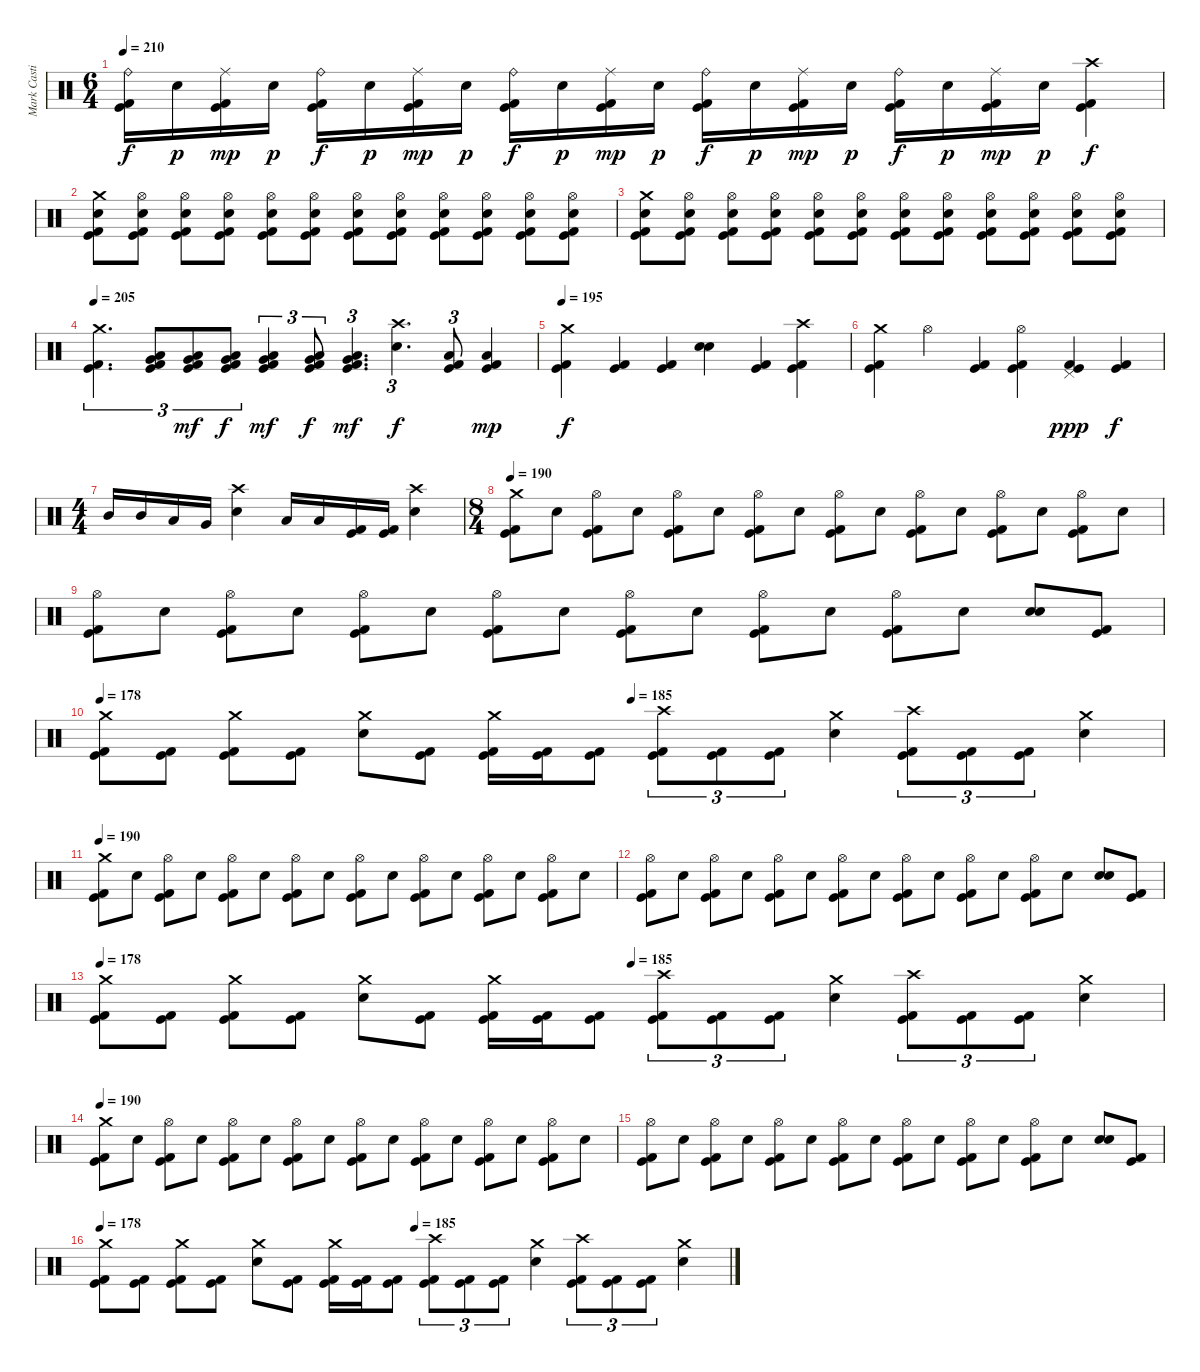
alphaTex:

\track ("Mark Castillo" "Mark Casti") {instrument percussion}
\staff {score}
\articulation defaults
\ts (6 4)
\tempo 210
\clef neutral
\ks c
("Ride (bell)" "Kick (hit)" "Kick (hit) 2").16{dy f} "Electric Snare (hit)".16{dy p} ("Ride (middle)" "Kick (hit)" "Kick (hit) 2").16{dy mp} "Electric Snare (hit)".16{dy p} ("Ride (bell)" "Kick (hit)" "Kick (hit) 2").16{dy f} "Electric Snare (hit)".16{dy p} ("Ride (middle)" "Kick (hit)" "Kick (hit) 2").16{dy mp} "Electric Snare (hit)".16{dy p} ("Ride (bell)" "Kick (hit)" "Kick (hit) 2").16{dy f} "Electric Snare (hit)".16{dy p} ("Ride (middle)" "Kick (hit)" "Kick (hit) 2").16{dy mp} "Electric Snare (hit)".16{dy p} ("Ride (bell)" "Kick (hit)" "Kick (hit) 2").16{dy f} "Electric Snare (hit)".16{dy p} ("Ride (middle)" "Kick (hit)" "Kick (hit) 2").16{dy mp} "Electric Snare (hit)".16{dy p} ("Ride (bell)" "Kick (hit)" "Kick (hit) 2").16{dy f} "Electric Snare (hit)".16{dy p} ("Ride (middle)" "Kick (hit)" "Kick (hit) 2").16{dy mp} "Electric Snare (hit)".16{dy p} ("Crash high (hit)" "Kick (hit)" "Kick (hit) 2").4{dy f} |
("Crash medium (hit)" "Electric Snare (hit)" "Kick (hit)" "Kick (hit) 2").8 ("Hi-Hat (open)" "Electric Snare (hit)" "Kick (hit)" "Kick (hit) 2").8 ("Hi-Hat (open)" "Electric Snare (hit)" "Kick (hit)" "Kick (hit) 2").8 ("Hi-Hat (open)" "Electric Snare (hit)" "Kick (hit)" "Kick (hit) 2").8 ("Hi-Hat (open)" "Electric Snare (hit)" "Kick (hit)" "Kick (hit) 2").8 ("Hi-Hat (open)" "Electric Snare (hit)" "Kick (hit)" "Kick (hit) 2").8 ("Hi-Hat (open)" "Electric Snare (hit)" "Kick (hit)" "Kick (hit) 2").8 ("Hi-Hat (open)" "Electric Snare (hit)" "Kick (hit)" "Kick (hit) 2").8 ("Hi-Hat (open)" "Electric Snare (hit)" "Kick (hit)" "Kick (hit) 2").8 ("Hi-Hat (open)" "Electric Snare (hit)" "Kick (hit)" "Kick (hit) 2").8 ("Hi-Hat (open)" "Electric Snare (hit)" "Kick (hit)" "Kick (hit) 2").8 ("Hi-Hat (open)" "Electric Snare (hit)" "Kick (hit)" "Kick (hit) 2").8 |
("Crash medium (hit)" "Electric Snare (hit)" "Kick (hit)" "Kick (hit) 2").8 ("Hi-Hat (open)" "Electric Snare (hit)" "Kick (hit)" "Kick (hit) 2").8 ("Hi-Hat (open)" "Electric Snare (hit)" "Kick (hit)" "Kick (hit) 2").8 ("Hi-Hat (open)" "Electric Snare (hit)" "Kick (hit)" "Kick (hit) 2").8 ("Hi-Hat (open)" "Electric Snare (hit)" "Kick (hit)" "Kick (hit) 2").8 ("Hi-Hat (open)" "Electric Snare (hit)" "Kick (hit)" "Kick (hit) 2").8 ("Hi-Hat (open)" "Electric Snare (hit)" "Kick (hit)" "Kick (hit) 2").8 ("Hi-Hat (open)" "Electric Snare (hit)" "Kick (hit)" "Kick (hit) 2").8 ("Hi-Hat (open)" "Electric Snare (hit)" "Kick (hit)" "Kick (hit) 2").8 ("Hi-Hat (open)" "Electric Snare (hit)" "Kick (hit)" "Kick (hit) 2").8 ("Hi-Hat (open)" "Electric Snare (hit)" "Kick (hit)" "Kick (hit) 2").8 ("Hi-Hat (open)" "Electric Snare (hit)" "Kick (hit)" "Kick (hit) 2").8 |
\tempo 205
("Crash medium (hit)" "Kick (hit)" "Kick (hit) 2").4{d tu (3 2)} ("Very Low Tom (hit)" "Low Floor Tom (hit)" "Kick (hit)" "Kick (hit) 2").8{tu (3 2)} ("Very Low Tom (hit)" "Low Floor Tom (hit)" "Kick (hit)" "Kick (hit) 2").8{tu (3 2) dy mf} ("Very Low Tom (hit)" "Low Floor Tom (hit)" "Kick (hit)" "Kick (hit) 2").8{tu (3 2) dy f} ("Very Low Tom (hit)" "Low Floor Tom (hit)" "Kick (hit)" "Kick (hit) 2").4{tu (3 2) dy mf} ("Very Low Tom (hit)" "Low Floor Tom (hit)" "Kick (hit)" "Kick (hit) 2").8{tu (3 2) dy f} ("Very Low Tom (hit)" "Low Floor Tom (hit)" "Kick (hit)" "Kick (hit) 2").4{d tu (3 2) dy mf} ("Crash high (hit)" "Electric Snare (hit)").4{d tu (3 2) dy f} ("Low Floor Tom (hit)" "Kick (hit)" "Kick (hit) 2").8{tu (3 2)} ("Low Floor Tom (hit)" "Kick (hit)" "Kick (hit) 2").4{dy mp} |
\tempo 195
("Crash medium (hit)" "Kick (hit)" "Kick (hit) 2").4{dy f} ("Kick (hit)" "Kick (hit) 2").4 ("Kick (hit)" "Kick (hit) 2").4 ("Electric Snare (hit)" "Electric Snare (hit)").4{bu 240} ("Kick (hit)" "Kick (hit) 2").4 ("Crash high (hit)" "Kick (hit)" "Kick (hit) 2").4 |
("Crash medium (hit)" "Kick (hit)" "Kick (hit) 2").4 "Hi-Hat (open)".4 ("Kick (hit)" "Kick (hit) 2").4 ("Hi-Hat (open)" "Kick (hit)" "Kick (hit) 2").4 ("Pedal Hi-Hat (hit)" "Kick (hit)" "Kick (hit) 2").4{dy ppp} ("Kick (hit)" "Kick (hit) 2").4{dy f} |
\ts (4 4)
"Mid Tom (hit)".16 "Mid Tom (hit)".16 "Low Tom (hit)".16 "Very Low Tom (hit)".16 ("Crash high (hit)" "Electric Snare (hit)").4 "Low Tom (hit)".16 "Low Tom (hit)".16 ("Kick (hit)" "Kick (hit) 2").16 ("Kick (hit)" "Kick (hit) 2").16 ("Crash high (hit)" "Electric Snare (hit)").4 |
\ts (8 4)
\tempo 190
("Crash medium (hit)" "Kick (hit)" "Kick (hit) 2").8 "Electric Snare (hit)".8 ("Hi-Hat (open)" "Kick (hit)" "Kick (hit) 2").8 "Electric Snare (hit)".8 ("Hi-Hat (open)" "Kick (hit)" "Kick (hit) 2").8 "Electric Snare (hit)".8 ("Hi-Hat (open)" "Kick (hit)" "Kick (hit) 2").8 "Electric Snare (hit)".8 ("Hi-Hat (open)" "Kick (hit)" "Kick (hit) 2").8 "Electric Snare (hit)".8 ("Hi-Hat (open)" "Kick (hit)" "Kick (hit) 2").8 "Electric Snare (hit)".8 ("Hi-Hat (open)" "Kick (hit)" "Kick (hit) 2").8 "Electric Snare (hit)".8 ("Hi-Hat (open)" "Kick (hit)" "Kick (hit) 2").8 "Electric Snare (hit)".8 |
("Hi-Hat (open)" "Kick (hit)" "Kick (hit) 2").8 "Electric Snare (hit)".8 ("Hi-Hat (open)" "Kick (hit)" "Kick (hit) 2").8 "Electric Snare (hit)".8 ("Hi-Hat (open)" "Kick (hit)" "Kick (hit) 2").8 "Electric Snare (hit)".8 ("Hi-Hat (open)" "Kick (hit)" "Kick (hit) 2").8 "Electric Snare (hit)".8 ("Hi-Hat (open)" "Kick (hit)" "Kick (hit) 2").8 "Electric Snare (hit)".8 ("Hi-Hat (open)" "Kick (hit)" "Kick (hit) 2").8 "Electric Snare (hit)".8 ("Hi-Hat (open)" "Kick (hit)" "Kick (hit) 2").8 "Electric Snare (hit)".8 ("Electric Snare (hit)" "Electric Snare (hit)").8{bu 240} ("Kick (hit)" "Kick (hit) 2").8 |
\tempo 178
\tempo (185 0.5)
("Crash medium (hit)" "Kick (hit)" "Kick (hit) 2").8 ("Kick (hit)" "Kick (hit) 2").8 ("Crash medium (hit)" "Kick (hit)" "Kick (hit) 2").8 ("Kick (hit)" "Kick (hit) 2").8 ("Crash medium (hit)" "Electric Snare (hit)").8 ("Kick (hit)" "Kick (hit) 2").8 ("Crash medium (hit)" "Kick (hit)" "Kick (hit) 2").16 ("Kick (hit)" "Kick (hit) 2").16 ("Kick (hit)" "Kick (hit) 2").8 ("Crash high (hit)" "Kick (hit)" "Kick (hit) 2").8{tu (3 2)} ("Kick (hit)" "Kick (hit) 2").8{tu (3 2)} ("Kick (hit)" "Kick (hit) 2").8{tu (3 2)} ("Crash medium (hit)" "Electric Snare (hit)").4 ("Crash high (hit)" "Kick (hit)" "Kick (hit) 2").8{tu (3 2)} ("Kick (hit)" "Kick (hit) 2").8{tu (3 2)} ("Kick (hit)" "Kick (hit) 2").8{tu (3 2)} ("Crash medium (hit)" "Electric Snare (hit)").4 |
\tempo 190
("Crash medium (hit)" "Kick (hit)" "Kick (hit) 2").8 "Electric Snare (hit)".8 ("Hi-Hat (open)" "Kick (hit)" "Kick (hit) 2").8 "Electric Snare (hit)".8 ("Hi-Hat (open)" "Kick (hit)" "Kick (hit) 2").8 "Electric Snare (hit)".8 ("Hi-Hat (open)" "Kick (hit)" "Kick (hit) 2").8 "Electric Snare (hit)".8 ("Hi-Hat (open)" "Kick (hit)" "Kick (hit) 2").8 "Electric Snare (hit)".8 ("Hi-Hat (open)" "Kick (hit)" "Kick (hit) 2").8 "Electric Snare (hit)".8 ("Hi-Hat (open)" "Kick (hit)" "Kick (hit) 2").8 "Electric Snare (hit)".8 ("Hi-Hat (open)" "Kick (hit)" "Kick (hit) 2").8 "Electric Snare (hit)".8 |
("Hi-Hat (open)" "Kick (hit)" "Kick (hit) 2").8 "Electric Snare (hit)".8 ("Hi-Hat (open)" "Kick (hit)" "Kick (hit) 2").8 "Electric Snare (hit)".8 ("Hi-Hat (open)" "Kick (hit)" "Kick (hit) 2").8 "Electric Snare (hit)".8 ("Hi-Hat (open)" "Kick (hit)" "Kick (hit) 2").8 "Electric Snare (hit)".8 ("Hi-Hat (open)" "Kick (hit)" "Kick (hit) 2").8 "Electric Snare (hit)".8 ("Hi-Hat (open)" "Kick (hit)" "Kick (hit) 2").8 "Electric Snare (hit)".8 ("Hi-Hat (open)" "Kick (hit)" "Kick (hit) 2").8 "Electric Snare (hit)".8 ("Electric Snare (hit)" "Electric Snare (hit)").8{bu 240} ("Kick (hit)" "Kick (hit) 2").8 |
\tempo 178
\tempo (185 0.5)
("Crash medium (hit)" "Kick (hit)" "Kick (hit) 2").8 ("Kick (hit)" "Kick (hit) 2").8 ("Crash medium (hit)" "Kick (hit)" "Kick (hit) 2").8 ("Kick (hit)" "Kick (hit) 2").8 ("Crash medium (hit)" "Electric Snare (hit)").8 ("Kick (hit)" "Kick (hit) 2").8 ("Crash medium (hit)" "Kick (hit)" "Kick (hit) 2").16 ("Kick (hit)" "Kick (hit) 2").16 ("Kick (hit)" "Kick (hit) 2").8 ("Crash high (hit)" "Kick (hit)" "Kick (hit) 2").8{tu (3 2)} ("Kick (hit)" "Kick (hit) 2").8{tu (3 2)} ("Kick (hit)" "Kick (hit) 2").8{tu (3 2)} ("Crash medium (hit)" "Electric Snare (hit)").4 ("Crash high (hit)" "Kick (hit)" "Kick (hit) 2").8{tu (3 2)} ("Kick (hit)" "Kick (hit) 2").8{tu (3 2)} ("Kick (hit)" "Kick (hit) 2").8{tu (3 2)} ("Crash medium (hit)" "Electric Snare (hit)").4 |
\tempo 190
("Crash medium (hit)" "Kick (hit)" "Kick (hit) 2").8 "Electric Snare (hit)".8 ("Hi-Hat (open)" "Kick (hit)" "Kick (hit) 2").8 "Electric Snare (hit)".8 ("Hi-Hat (open)" "Kick (hit)" "Kick (hit) 2").8 "Electric Snare (hit)".8 ("Hi-Hat (open)" "Kick (hit)" "Kick (hit) 2").8 "Electric Snare (hit)".8 ("Hi-Hat (open)" "Kick (hit)" "Kick (hit) 2").8 "Electric Snare (hit)".8 ("Hi-Hat (open)" "Kick (hit)" "Kick (hit) 2").8 "Electric Snare (hit)".8 ("Hi-Hat (open)" "Kick (hit)" "Kick (hit) 2").8 "Electric Snare (hit)".8 ("Hi-Hat (open)" "Kick (hit)" "Kick (hit) 2").8 "Electric Snare (hit)".8 |
("Hi-Hat (open)" "Kick (hit)" "Kick (hit) 2").8 "Electric Snare (hit)".8 ("Hi-Hat (open)" "Kick (hit)" "Kick (hit) 2").8 "Electric Snare (hit)".8 ("Hi-Hat (open)" "Kick (hit)" "Kick (hit) 2").8 "Electric Snare (hit)".8 ("Hi-Hat (open)" "Kick (hit)" "Kick (hit) 2").8 "Electric Snare (hit)".8 ("Hi-Hat (open)" "Kick (hit)" "Kick (hit) 2").8 "Electric Snare (hit)".8 ("Hi-Hat (open)" "Kick (hit)" "Kick (hit) 2").8 "Electric Snare (hit)".8 ("Hi-Hat (open)" "Kick (hit)" "Kick (hit) 2").8 "Electric Snare (hit)".8 ("Electric Snare (hit)" "Electric Snare (hit)").8{bu 240} ("Kick (hit)" "Kick (hit) 2").8 |
\tempo 178
\tempo (185 0.5)
("Crash medium (hit)" "Kick (hit)" "Kick (hit) 2").8 ("Kick (hit)" "Kick (hit) 2").8 ("Crash medium (hit)" "Kick (hit)" "Kick (hit) 2").8 ("Kick (hit)" "Kick (hit) 2").8 ("Crash medium (hit)" "Electric Snare (hit)").8 ("Kick (hit)" "Kick (hit) 2").8 ("Crash medium (hit)" "Kick (hit)" "Kick (hit) 2").16 ("Kick (hit)" "Kick (hit) 2").16 ("Kick (hit)" "Kick (hit) 2").8 ("Crash high (hit)" "Kick (hit)" "Kick (hit) 2").8{tu (3 2)} ("Kick (hit)" "Kick (hit) 2").8{tu (3 2)} ("Kick (hit)" "Kick (hit) 2").8{tu (3 2)} ("Crash medium (hit)" "Electric Snare (hit)").4 ("Crash high (hit)" "Kick (hit)" "Kick (hit) 2").8{tu (3 2)} ("Kick (hit)" "Kick (hit) 2").8{tu (3 2)} ("Kick (hit)" "Kick (hit) 2").8{tu (3 2)} ("Crash medium (hit)" "Electric Snare (hit)").4
